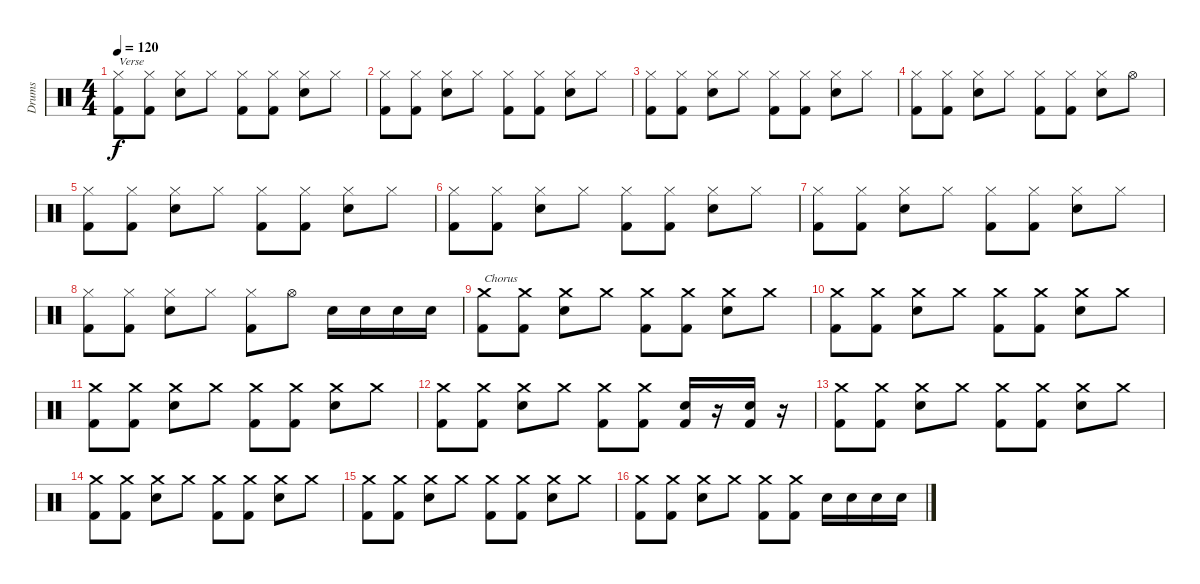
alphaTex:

\track ("Drums" "Drums") {instrument percussion}
\staff {score}
\articulation defaults
\ts (4 4)
\tempo 120
\clef neutral
\ks c
("Hi-Hat (closed)" "Kick (hit) 2").8{txt "Verse" dy f} ("Hi-Hat (closed)" "Kick (hit) 2").8 ("Hi-Hat (closed)" "Electric Snare (hit)").8 "Hi-Hat (closed)".8 ("Hi-Hat (closed)" "Kick (hit) 2").8 ("Hi-Hat (closed)" "Kick (hit) 2").8 ("Hi-Hat (closed)" "Electric Snare (hit)").8 "Hi-Hat (closed)".8 |
("Hi-Hat (closed)" "Kick (hit) 2").8 ("Hi-Hat (closed)" "Kick (hit) 2").8 ("Hi-Hat (closed)" "Electric Snare (hit)").8 "Hi-Hat (closed)".8 ("Hi-Hat (closed)" "Kick (hit) 2").8 ("Hi-Hat (closed)" "Kick (hit) 2").8 ("Hi-Hat (closed)" "Electric Snare (hit)").8 "Hi-Hat (closed)".8 |
("Hi-Hat (closed)" "Kick (hit) 2").8 ("Hi-Hat (closed)" "Kick (hit) 2").8 ("Hi-Hat (closed)" "Electric Snare (hit)").8 "Hi-Hat (closed)".8 ("Hi-Hat (closed)" "Kick (hit) 2").8 ("Hi-Hat (closed)" "Kick (hit) 2").8 ("Hi-Hat (closed)" "Electric Snare (hit)").8 "Hi-Hat (closed)".8 |
("Hi-Hat (closed)" "Kick (hit) 2").8 ("Hi-Hat (closed)" "Kick (hit) 2").8 ("Hi-Hat (closed)" "Electric Snare (hit)").8 "Hi-Hat (closed)".8 ("Hi-Hat (closed)" "Kick (hit) 2").8 ("Hi-Hat (closed)" "Kick (hit) 2").8 ("Hi-Hat (closed)" "Electric Snare (hit)").8 "Hi-Hat (open)".8 |
("Hi-Hat (closed)" "Kick (hit) 2").8 ("Hi-Hat (closed)" "Kick (hit) 2").8 ("Hi-Hat (closed)" "Electric Snare (hit)").8 "Hi-Hat (closed)".8 ("Hi-Hat (closed)" "Kick (hit) 2").8 ("Hi-Hat (closed)" "Kick (hit) 2").8 ("Hi-Hat (closed)" "Electric Snare (hit)").8 "Hi-Hat (closed)".8 |
("Hi-Hat (closed)" "Kick (hit) 2").8 ("Hi-Hat (closed)" "Kick (hit) 2").8 ("Hi-Hat (closed)" "Electric Snare (hit)").8 "Hi-Hat (closed)".8 ("Hi-Hat (closed)" "Kick (hit) 2").8 ("Hi-Hat (closed)" "Kick (hit) 2").8 ("Hi-Hat (closed)" "Electric Snare (hit)").8 "Hi-Hat (closed)".8 |
("Hi-Hat (closed)" "Kick (hit) 2").8 ("Hi-Hat (closed)" "Kick (hit) 2").8 ("Hi-Hat (closed)" "Electric Snare (hit)").8 "Hi-Hat (closed)".8 ("Hi-Hat (closed)" "Kick (hit) 2").8 ("Hi-Hat (closed)" "Kick (hit) 2").8 ("Hi-Hat (closed)" "Electric Snare (hit)").8 "Hi-Hat (closed)".8 |
("Hi-Hat (closed)" "Kick (hit) 2").8 ("Hi-Hat (closed)" "Kick (hit) 2").8 ("Hi-Hat (closed)" "Electric Snare (hit)").8 "Hi-Hat (closed)".8 ("Hi-Hat (closed)" "Kick (hit) 2").8 "Hi-Hat (open)".8 "Electric Snare (hit)".16 "Electric Snare (hit)".16 "Electric Snare (hit)".16 "Electric Snare (hit)".16 |
("Crash medium (hit)" "Kick (hit) 2").8{txt "Chorus"} ("Crash medium (hit)" "Kick (hit) 2").8 ("Crash medium (hit)" "Electric Snare (hit)").8 "Crash medium (hit)".8 ("Crash medium (hit)" "Kick (hit) 2").8 ("Crash medium (hit)" "Kick (hit) 2").8 ("Crash medium (hit)" "Electric Snare (hit)").8 "Crash medium (hit)".8 |
("Crash medium (hit)" "Kick (hit) 2").8 ("Crash medium (hit)" "Kick (hit) 2").8 ("Crash medium (hit)" "Electric Snare (hit)").8 "Crash medium (hit)".8 ("Crash medium (hit)" "Kick (hit) 2").8 ("Crash medium (hit)" "Kick (hit) 2").8 ("Crash medium (hit)" "Electric Snare (hit)").8 "Crash medium (hit)".8 |
("Crash medium (hit)" "Kick (hit) 2").8 ("Crash medium (hit)" "Kick (hit) 2").8 ("Crash medium (hit)" "Electric Snare (hit)").8 "Crash medium (hit)".8 ("Crash medium (hit)" "Kick (hit) 2").8 ("Crash medium (hit)" "Kick (hit) 2").8 ("Crash medium (hit)" "Electric Snare (hit)").8 "Crash medium (hit)".8 |
("Crash medium (hit)" "Kick (hit) 2").8 ("Crash medium (hit)" "Kick (hit) 2").8 ("Crash medium (hit)" "Electric Snare (hit)").8 "Crash medium (hit)".8 ("Crash medium (hit)" "Kick (hit) 2").8 ("Crash medium (hit)" "Kick (hit) 2").8 ("Kick (hit) 2" "Electric Snare (hit)").16 r.16 ("Kick (hit) 2" "Electric Snare (hit)").16 r.16 |
("Crash medium (hit)" "Kick (hit) 2").8 ("Crash medium (hit)" "Kick (hit) 2").8 ("Crash medium (hit)" "Electric Snare (hit)").8 "Crash medium (hit)".8 ("Crash medium (hit)" "Kick (hit) 2").8 ("Crash medium (hit)" "Kick (hit) 2").8 ("Crash medium (hit)" "Electric Snare (hit)").8 "Crash medium (hit)".8 |
("Crash medium (hit)" "Kick (hit) 2").8 ("Crash medium (hit)" "Kick (hit) 2").8 ("Crash medium (hit)" "Electric Snare (hit)").8 "Crash medium (hit)".8 ("Crash medium (hit)" "Kick (hit) 2").8 ("Crash medium (hit)" "Kick (hit) 2").8 ("Crash medium (hit)" "Electric Snare (hit)").8 "Crash medium (hit)".8 |
("Crash medium (hit)" "Kick (hit) 2").8 ("Crash medium (hit)" "Kick (hit) 2").8 ("Crash medium (hit)" "Electric Snare (hit)").8 "Crash medium (hit)".8 ("Crash medium (hit)" "Kick (hit) 2").8 ("Crash medium (hit)" "Kick (hit) 2").8 ("Crash medium (hit)" "Electric Snare (hit)").8 "Crash medium (hit)".8 |
("Crash medium (hit)" "Kick (hit) 2").8 ("Crash medium (hit)" "Kick (hit) 2").8 ("Crash medium (hit)" "Electric Snare (hit)").8 "Crash medium (hit)".8 ("Crash medium (hit)" "Kick (hit) 2").8 ("Crash medium (hit)" "Kick (hit) 2").8 "Electric Snare (hit)".16 "Electric Snare (hit)".16 "Electric Snare (hit)".16 "Electric Snare (hit)".16
